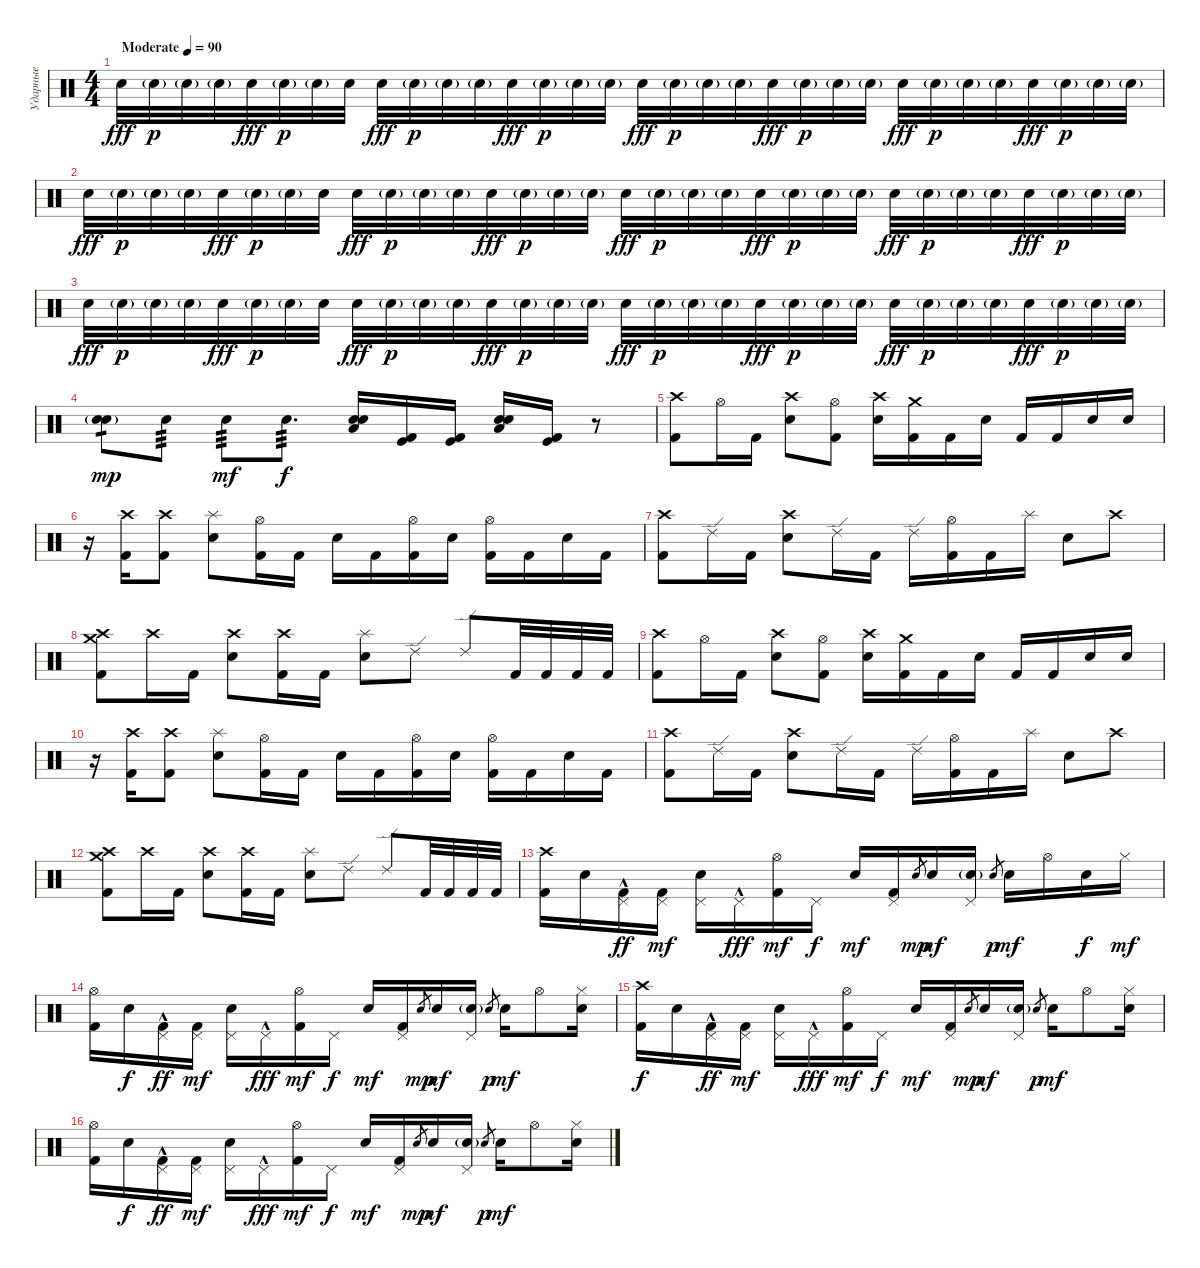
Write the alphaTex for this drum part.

\track ("Ударные" "Ударные") {instrument percussion}
\staff {score}
\articulation defaults
\ts (4 4)
\tempo (90 "Moderate")
\clef neutral
\ks c "Electric Snare (hit)".32{dy fff} "Electric Snare (hit)"{g}.32{dy p} "Electric Snare (hit)"{g}.32 "Electric Snare (hit)"{g}.32 "Electric Snare (hit)".32{dy fff} "Electric Snare (hit)"{g}.32{dy p} "Electric Snare (hit)"{g}.32 "Electric Snare (hit)".32 "Electric Snare (hit)".32{dy fff} "Electric Snare (hit)"{g}.32{dy p} "Electric Snare (hit)"{g}.32 "Electric Snare (hit)"{g}.32 "Electric Snare (hit)".32{dy fff} "Electric Snare (hit)"{g}.32{dy p} "Electric Snare (hit)"{g}.32 "Electric Snare (hit)"{g}.32 "Electric Snare (hit)".32{dy fff} "Electric Snare (hit)"{g}.32{dy p} "Electric Snare (hit)"{g}.32 "Electric Snare (hit)"{g}.32 "Electric Snare (hit)".32{dy fff} "Electric Snare (hit)"{g}.32{dy p} "Electric Snare (hit)"{g}.32 "Electric Snare (hit)"{g}.32 "Electric Snare (hit)".32{dy fff} "Electric Snare (hit)"{g}.32{dy p} "Electric Snare (hit)"{g}.32 "Electric Snare (hit)"{g}.32 "Electric Snare (hit)".32{dy fff} "Electric Snare (hit)"{g}.32{dy p} "Electric Snare (hit)"{g}.32 "Electric Snare (hit)"{g}.32
|
"Electric Snare (hit)".32{dy fff} "Electric Snare (hit)"{g}.32{dy p} "Electric Snare (hit)"{g}.32 "Electric Snare (hit)"{g}.32 "Electric Snare (hit)".32{dy fff} "Electric Snare (hit)"{g}.32{dy p} "Electric Snare (hit)"{g}.32 "Electric Snare (hit)".32 "Electric Snare (hit)".32{dy fff} "Electric Snare (hit)"{g}.32{dy p} "Electric Snare (hit)"{g}.32 "Electric Snare (hit)"{g}.32 "Electric Snare (hit)".32{dy fff} "Electric Snare (hit)"{g}.32{dy p} "Electric Snare (hit)"{g}.32 "Electric Snare (hit)"{g}.32 "Electric Snare (hit)".32{dy fff} "Electric Snare (hit)"{g}.32{dy p} "Electric Snare (hit)"{g}.32 "Electric Snare (hit)"{g}.32 "Electric Snare (hit)".32{dy fff} "Electric Snare (hit)"{g}.32{dy p} "Electric Snare (hit)"{g}.32 "Electric Snare (hit)"{g}.32 "Electric Snare (hit)".32{dy fff} "Electric Snare (hit)"{g}.32{dy p} "Electric Snare (hit)"{g}.32 "Electric Snare (hit)"{g}.32 "Electric Snare (hit)".32{dy fff} "Electric Snare (hit)"{g}.32{dy p} "Electric Snare (hit)"{g}.32 "Electric Snare (hit)"{g}.32 |
"Electric Snare (hit)".32{dy fff} "Electric Snare (hit)"{g}.32{dy p} "Electric Snare (hit)"{g}.32 "Electric Snare (hit)"{g}.32 "Electric Snare (hit)".32{dy fff} "Electric Snare (hit)"{g}.32{dy p} "Electric Snare (hit)"{g}.32 "Electric Snare (hit)".32 "Electric Snare (hit)".32{dy fff} "Electric Snare (hit)"{g}.32{dy p} "Electric Snare (hit)"{g}.32 "Electric Snare (hit)"{g}.32 "Electric Snare (hit)".32{dy fff} "Electric Snare (hit)"{g}.32{dy p} "Electric Snare (hit)"{g}.32 "Electric Snare (hit)"{g}.32 "Electric Snare (hit)".32{dy fff} "Electric Snare (hit)"{g}.32{dy p} "Electric Snare (hit)"{g}.32 "Electric Snare (hit)"{g}.32 "Electric Snare (hit)".32{dy fff} "Electric Snare (hit)"{g}.32{dy p} "Electric Snare (hit)"{g}.32 "Electric Snare (hit)"{g}.32 "Electric Snare (hit)".32{dy fff} "Electric Snare (hit)"{g}.32{dy p} "Electric Snare (hit)"{g}.32 "Electric Snare (hit)"{g}.32 "Electric Snare (hit)".32{dy fff} "Electric Snare (hit)"{g}.32{dy p} "Electric Snare (hit)"{g}.32 "Electric Snare (hit)"{g}.32 |
("Electric Snare (hit)"{g} "Electric Snare (hit)").8{tp 1 dy mp} "Electric Snare (hit)".8{tp 3} "Electric Snare (hit)".8{tp 3 dy mf} "Electric Snare (hit)".8{d tp 3 dy f} ("Snare (hit) 2" "Low Floor Tom (hit)" "Electric Snare (hit)").16 ("Kick (hit) 2" "Kick (hit)").16 ("Kick (hit) 2" "Kick (hit)").16 ("Snare (hit) 2" "Low Floor Tom (hit)" "Electric Snare (hit)").16 ("Kick (hit) 2" "Kick (hit)").16 r.8 |
("Kick (hit) 2" "Crash high (hit)").8 "Hi-Hat (open)".16 "Kick (hit) 2".16 ("Electric Snare (hit)" "Crash high (hit)").8 ("Kick (hit) 2" "Hi-Hat (open)").8 ("Electric Snare (hit)" "Crash high (hit)").16 ("Kick (hit) 2" "Crash medium (hit)").16 "Kick (hit) 2".16 "Electric Snare (hit)".16 "Kick (hit) 2".16 "Kick (hit) 2".16 "Electric Snare (hit)".16 "Electric Snare (hit)".16 |
r.16 ("Kick (hit) 2" "Crash high (hit)").16 ("Kick (hit) 2" "Crash high (hit)").8 ("Electric Snare (hit)" "Splash (hit)").8 ("Kick (hit) 2" "Hi-Hat (open)").16 "Kick (hit) 2".16 "Electric Snare (hit)".16 "Kick (hit) 2".16 ("Kick (hit) 2" "Hi-Hat (open)").16 "Electric Snare (hit)".16 ("Kick (hit) 2" "Hi-Hat (open)").16 "Kick (hit) 2".16 "Electric Snare (hit)".16 "Kick (hit) 2".16 |
("Kick (hit) 2" "Crash high (hit)").8 "Ride (edge) 2".16 "Kick (hit) 2".16 ("Electric Snare (hit)" "Crash high (hit)").8 "Ride (edge) 2".16 "Kick (hit) 2".16 "Ride (edge) 2".16 ("Kick (hit) 2" "Hi-Hat (open)").16 "Kick (hit) 2".16 "Splash (hit)".16 "Electric Snare (hit)".8 "Crash high (hit)".8 |
("Kick (hit) 2" "Crash medium (hit)" "Crash high (hit)").8 "Crash high (hit)".16 "Kick (hit) 2".16 ("Electric Snare (hit)" "Crash high (hit)").8 ("Kick (hit) 2" "Crash high (hit)").16 "Kick (hit) 2".16 ("Electric Snare (hit)" "Splash (hit)").8 "Ride (edge) 2".8 "Ride (edge) 2".8 "Kick (hit) 2".32 "Kick (hit) 2".32 "Kick (hit) 2".32 "Kick (hit) 2".32 |
("Kick (hit) 2" "Crash high (hit)").8 "Hi-Hat (open)".16 "Kick (hit) 2".16 ("Electric Snare (hit)" "Crash high (hit)").8 ("Kick (hit) 2" "Hi-Hat (open)").8 ("Electric Snare (hit)" "Crash high (hit)").16 ("Kick (hit) 2" "Crash medium (hit)").16 "Kick (hit) 2".16 "Electric Snare (hit)".16 "Kick (hit) 2".16 "Kick (hit) 2".16 "Electric Snare (hit)".16 "Electric Snare (hit)".16 |
r.16 ("Kick (hit) 2" "Crash high (hit)").16 ("Kick (hit) 2" "Crash high (hit)").8 ("Electric Snare (hit)" "Splash (hit)").8 ("Kick (hit) 2" "Hi-Hat (open)").16 "Kick (hit) 2".16 "Electric Snare (hit)".16 "Kick (hit) 2".16 ("Kick (hit) 2" "Hi-Hat (open)").16 "Electric Snare (hit)".16 ("Kick (hit) 2" "Hi-Hat (open)").16 "Kick (hit) 2".16 "Electric Snare (hit)".16 "Kick (hit) 2".16 |
("Kick (hit) 2" "Crash high (hit)").8 "Ride (edge) 2".16 "Kick (hit) 2".16 ("Electric Snare (hit)" "Crash high (hit)").8 "Ride (edge) 2".16 "Kick (hit) 2".16 "Ride (edge) 2".16 ("Kick (hit) 2" "Hi-Hat (open)").16 "Kick (hit) 2".16 "Splash (hit)".16 "Electric Snare (hit)".8 "Crash high (hit)".8 |
("Kick (hit) 2" "Crash medium (hit)" "Crash high (hit)").8 "Crash high (hit)".16 "Kick (hit) 2".16 ("Electric Snare (hit)" "Crash high (hit)").8 ("Kick (hit) 2" "Crash high (hit)").16 "Kick (hit) 2".16 ("Electric Snare (hit)" "Splash (hit)").8 "Ride (edge) 2".8 "Ride (edge) 2".8 "Kick (hit) 2".32 "Kick (hit) 2".32 "Kick (hit) 2".32 "Kick (hit) 2".32 |
("Kick (hit) 2" "Crash high (hit)").16 "Electric Snare (hit)".16 ("Kick (hit) 2" "Pedal Hi-Hat (hit)"{hac}).16{dy ff} ("Kick (hit) 2" "Pedal Hi-Hat (hit)").16{dy mf} ("Electric Snare (hit)" "Pedal Hi-Hat (hit)").16 "Pedal Hi-Hat (hit)"{hac}.16{dy fff} ("Kick (hit) 2" "Hi-Hat (open)").16{dy mf} "Pedal Hi-Hat (hit)".16{dy f} "Electric Snare (hit)".16{dy mf} ("Kick (hit) 2" "Pedal Hi-Hat (hit)").16 "Electric Snare (hit)".8{gr dy mp} "Electric Snare (hit)".16{dy mf} ("Electric Snare (hit)"{g} "Pedal Hi-Hat (hit)").16 "Electric Snare (hit)".8{gr dy p} "Electric Snare (hit)".16{dy mf} "Hi-Hat (open)".16 "Electric Snare (hit)".16{dy f} "Hi-Hat (closed)".16{dy mf} |
("Kick (hit) 2" "Hi-Hat (open)").16 "Electric Snare (hit)".16{dy f} ("Kick (hit) 2" "Pedal Hi-Hat (hit)"{hac}).16{dy ff} ("Kick (hit) 2" "Pedal Hi-Hat (hit)").16{dy mf} ("Electric Snare (hit)" "Pedal Hi-Hat (hit)").16 "Pedal Hi-Hat (hit)"{hac}.16{dy fff} ("Kick (hit) 2" "Hi-Hat (open)").16{dy mf} "Pedal Hi-Hat (hit)".16{dy f} "Electric Snare (hit)".16{dy mf} ("Kick (hit) 2" "Pedal Hi-Hat (hit)").16 "Electric Snare (hit)".8{gr dy mp} "Electric Snare (hit)".16{dy mf} ("Electric Snare (hit)"{g} "Pedal Hi-Hat (hit)").16 "Electric Snare (hit)".8{gr dy p} "Electric Snare (hit)".16{dy mf} "Hi-Hat (open)".8 ("Electric Snare (hit)" "Hi-Hat (closed)").16 |
("Kick (hit) 2" "Crash high (hit)").16{dy f} "Electric Snare (hit)".16 ("Kick (hit) 2" "Pedal Hi-Hat (hit)"{hac}).16{dy ff} ("Kick (hit) 2" "Pedal Hi-Hat (hit)").16{dy mf} ("Electric Snare (hit)" "Pedal Hi-Hat (hit)").16 "Pedal Hi-Hat (hit)"{hac}.16{dy fff} ("Kick (hit) 2" "Hi-Hat (open)").16{dy mf} "Pedal Hi-Hat (hit)".16{dy f} "Electric Snare (hit)".16{dy mf} ("Kick (hit) 2" "Pedal Hi-Hat (hit)").16 "Electric Snare (hit)".8{gr dy mp} "Electric Snare (hit)".16{dy mf} ("Electric Snare (hit)"{g} "Pedal Hi-Hat (hit)").16 "Electric Snare (hit)".8{gr dy p} "Electric Snare (hit)".16{dy mf} "Hi-Hat (open)".8 ("Electric Snare (hit)" "Hi-Hat (closed)").16 |
("Kick (hit) 2" "Hi-Hat (open)").16 "Electric Snare (hit)".16{dy f} ("Kick (hit) 2" "Pedal Hi-Hat (hit)"{hac}).16{dy ff} ("Kick (hit) 2" "Pedal Hi-Hat (hit)").16{dy mf} ("Electric Snare (hit)" "Pedal Hi-Hat (hit)").16 "Pedal Hi-Hat (hit)"{hac}.16{dy fff} ("Kick (hit) 2" "Hi-Hat (open)").16{dy mf} "Pedal Hi-Hat (hit)".16{dy f} "Electric Snare (hit)".16{dy mf} ("Kick (hit) 2" "Pedal Hi-Hat (hit)").16 "Electric Snare (hit)".8{gr dy mp} "Electric Snare (hit)".16{dy mf} ("Electric Snare (hit)"{g} "Pedal Hi-Hat (hit)").16 "Electric Snare (hit)".8{gr dy p} "Electric Snare (hit)".16{dy mf} "Hi-Hat (open)".8 ("Electric Snare (hit)" "Hi-Hat (closed)").16
